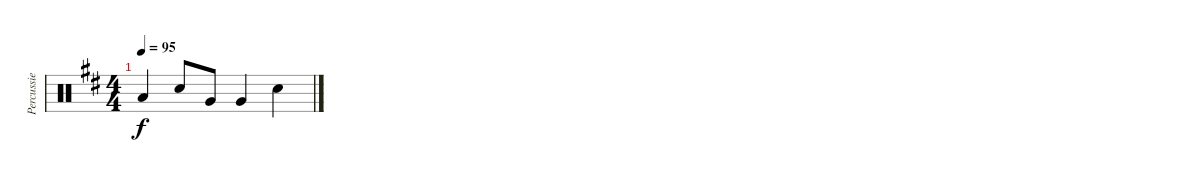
\track ("Percussie" "Percussie") {instrument percussion}
\staff {score}
\articulation defaults
\ts (4 4)
\tempo 95
\clef neutral
\ks d "Low Tom (hit)".4{dy f} "Electric Snare (hit)".8 "Very Low Tom (hit)".8 "Very Low Tom (hit)".4 "Electric Snare (hit)".4
